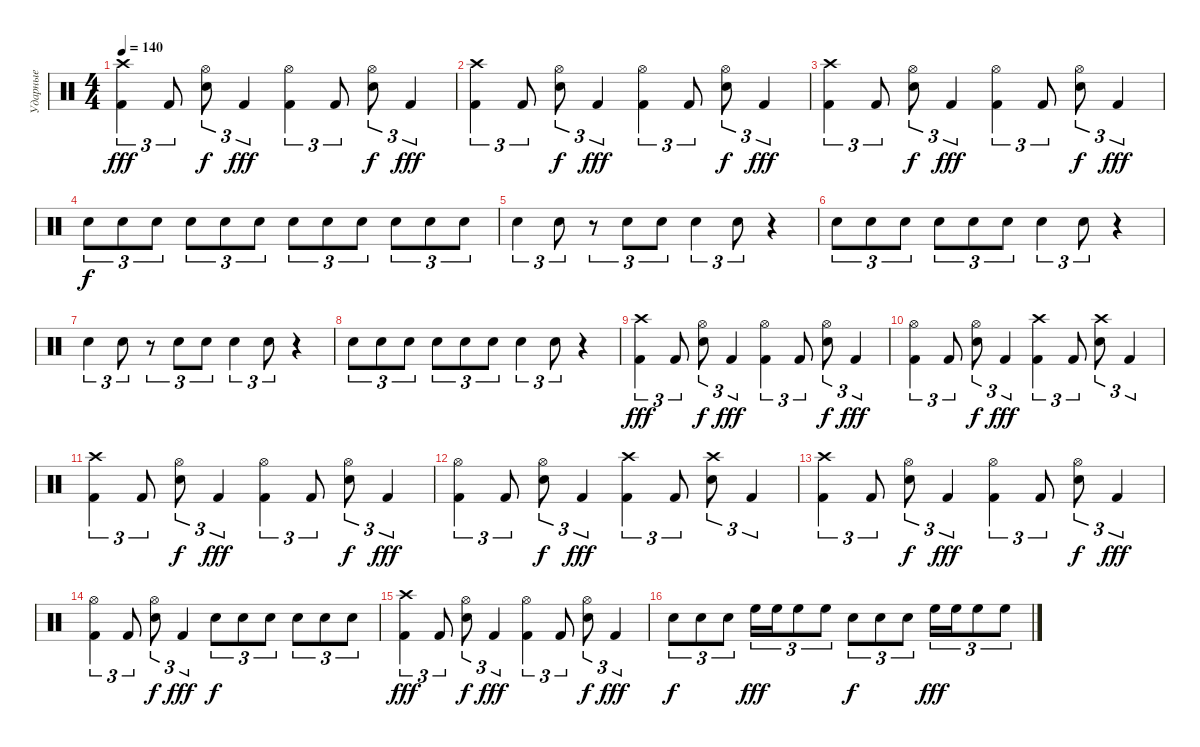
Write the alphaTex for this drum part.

\track ("Ударные" "Ударные") {instrument percussion}
\staff {score}
\articulation defaults
\ts (4 4)
\tempo 140
\clef neutral
\ks c
("Kick (hit) 2" "Crash high (hit)").4{tu (3 2) dy fff} "Kick (hit) 2".8{tu (3 2)} ("Snare (hit) 2" "Hi-Hat (open)").8{tu (3 2) dy f} "Kick (hit) 2".4{tu (3 2) dy fff} ("Kick (hit) 2" "Hi-Hat (open)").4{tu (3 2)} "Kick (hit) 2".8{tu (3 2)} ("Snare (hit) 2" "Hi-Hat (open)").8{tu (3 2) dy f} "Kick (hit) 2".4{tu (3 2) dy fff} |
("Kick (hit) 2" "Crash high (hit)").4{tu (3 2)} "Kick (hit) 2".8{tu (3 2)} ("Snare (hit) 2" "Hi-Hat (open)").8{tu (3 2) dy f} "Kick (hit) 2".4{tu (3 2) dy fff} ("Kick (hit) 2" "Hi-Hat (open)").4{tu (3 2)} "Kick (hit) 2".8{tu (3 2)} ("Snare (hit) 2" "Hi-Hat (open)").8{tu (3 2) dy f} "Kick (hit) 2".4{tu (3 2) dy fff} |
("Kick (hit) 2" "Crash high (hit)").4{tu (3 2)} "Kick (hit) 2".8{tu (3 2)} ("Snare (hit) 2" "Hi-Hat (open)").8{tu (3 2) dy f} "Kick (hit) 2".4{tu (3 2) dy fff} ("Kick (hit) 2" "Hi-Hat (open)").4{tu (3 2)} "Kick (hit) 2".8{tu (3 2)} ("Snare (hit) 2" "Hi-Hat (open)").8{tu (3 2) dy f} "Kick (hit) 2".4{tu (3 2) dy fff} |
"Snare (hit) 2".8{tu (3 2) dy f} "Snare (hit) 2".8{tu (3 2)} "Electric Snare (hit)".8{tu (3 2)} "Electric Snare (hit)".8{tu (3 2)} "Snare (hit) 2".8{tu (3 2)} "Snare (hit) 2".8{tu (3 2)} "Electric Snare (hit)".8{tu (3 2)} "Electric Snare (hit)".8{tu (3 2)} "Electric Snare (hit)".8{tu (3 2)} "Snare (hit) 2".8{tu (3 2)} "Electric Snare (hit)".8{tu (3 2)} "Electric Snare (hit)".8{tu (3 2)} |
"Snare (hit) 2".4{tu (3 2)} "Snare (hit) 2".8{tu (3 2)} r.8{tu (3 2)} "Snare (hit) 2".8{tu (3 2)} "Snare (hit) 2".8{tu (3 2)} "Snare (hit) 2".4{tu (3 2)} "Snare (hit) 2".8{tu (3 2)} r.4 |
"Snare (hit) 2".8{tu (3 2)} "Snare (hit) 2".8{tu (3 2)} "Snare (hit) 2".8{tu (3 2)} "Snare (hit) 2".8{tu (3 2)} "Snare (hit) 2".8{tu (3 2)} "Snare (hit) 2".8{tu (3 2)} "Snare (hit) 2".4{tu (3 2)} "Snare (hit) 2".8{tu (3 2)} r.4 |
"Snare (hit) 2".4{tu (3 2)} "Snare (hit) 2".8{tu (3 2)} r.8{tu (3 2)} "Snare (hit) 2".8{tu (3 2)} "Snare (hit) 2".8{tu (3 2)} "Snare (hit) 2".4{tu (3 2)} "Snare (hit) 2".8{tu (3 2)} r.4 |
"Snare (hit) 2".8{tu (3 2)} "Snare (hit) 2".8{tu (3 2)} "Snare (hit) 2".8{tu (3 2)} "Snare (hit) 2".8{tu (3 2)} "Snare (hit) 2".8{tu (3 2)} "Snare (hit) 2".8{tu (3 2)} "Snare (hit) 2".4{tu (3 2)} "Snare (hit) 2".8{tu (3 2)} r.4 |
("Kick (hit) 2" "Crash high (hit)").4{tu (3 2) dy fff} "Kick (hit) 2".8{tu (3 2)} ("Snare (hit) 2" "Hi-Hat (open)").8{tu (3 2) dy f} "Kick (hit) 2".4{tu (3 2) dy fff} ("Kick (hit) 2" "Hi-Hat (open)").4{tu (3 2)} "Kick (hit) 2".8{tu (3 2)} ("Snare (hit) 2" "Hi-Hat (open)").8{tu (3 2) dy f} "Kick (hit) 2".4{tu (3 2) dy fff} |
("Kick (hit) 2" "Hi-Hat (open)").4{tu (3 2)} "Kick (hit) 2".8{tu (3 2)} ("Snare (hit) 2" "Hi-Hat (open)").8{tu (3 2) dy f} "Kick (hit) 2".4{tu (3 2) dy fff} ("Kick (hit) 2" "Crash high (hit)").4{tu (3 2)} "Kick (hit) 2".8{tu (3 2)} ("Snare (hit) 2" "Crash high (hit)").8{tu (3 2)} "Kick (hit) 2".4{tu (3 2)} |
("Kick (hit) 2" "Crash high (hit)").4{tu (3 2)} "Kick (hit) 2".8{tu (3 2)} ("Snare (hit) 2" "Hi-Hat (open)").8{tu (3 2) dy f} "Kick (hit) 2".4{tu (3 2) dy fff} ("Kick (hit) 2" "Hi-Hat (open)").4{tu (3 2)} "Kick (hit) 2".8{tu (3 2)} ("Snare (hit) 2" "Hi-Hat (open)").8{tu (3 2) dy f} "Kick (hit) 2".4{tu (3 2) dy fff} |
("Kick (hit) 2" "Hi-Hat (open)").4{tu (3 2)} "Kick (hit) 2".8{tu (3 2)} ("Snare (hit) 2" "Hi-Hat (open)").8{tu (3 2) dy f} "Kick (hit) 2".4{tu (3 2) dy fff} ("Kick (hit) 2" "Crash high (hit)").4{tu (3 2)} "Kick (hit) 2".8{tu (3 2)} ("Snare (hit) 2" "Crash high (hit)").8{tu (3 2)} "Kick (hit) 2".4{tu (3 2)} |
("Kick (hit) 2" "Crash high (hit)").4{tu (3 2)} "Kick (hit) 2".8{tu (3 2)} ("Snare (hit) 2" "Hi-Hat (open)").8{tu (3 2) dy f} "Kick (hit) 2".4{tu (3 2) dy fff} ("Kick (hit) 2" "Hi-Hat (open)").4{tu (3 2)} "Kick (hit) 2".8{tu (3 2)} ("Snare (hit) 2" "Hi-Hat (open)").8{tu (3 2) dy f} "Kick (hit) 2".4{tu (3 2) dy fff} |
("Kick (hit) 2" "Hi-Hat (open)").4{tu (3 2)} "Kick (hit) 2".8{tu (3 2)} ("Snare (hit) 2" "Hi-Hat (open)").8{tu (3 2) dy f} "Kick (hit) 2".4{tu (3 2) dy fff} "Snare (hit) 2".8{tu (3 2) dy f} "Snare (hit) 2".8{tu (3 2)} "Snare (hit) 2".8{tu (3 2)} "Snare (hit) 2".8{tu (3 2)} "Snare (hit) 2".8{tu (3 2)} "Snare (hit) 2".8{tu (3 2)} |
("Kick (hit) 2" "Crash high (hit)").4{tu (3 2) dy fff} "Kick (hit) 2".8{tu (3 2)} ("Snare (hit) 2" "Hi-Hat (open)").8{tu (3 2) dy f} "Kick (hit) 2".4{tu (3 2) dy fff} ("Kick (hit) 2" "Hi-Hat (open)").4{tu (3 2)} "Kick (hit) 2".8{tu (3 2)} ("Snare (hit) 2" "Hi-Hat (open)").8{tu (3 2) dy f} "Kick (hit) 2".4{tu (3 2) dy fff} |
"Snare (hit) 2".8{tu (3 2) dy f} "Snare (hit) 2".8{tu (3 2)} "Electric Snare (hit)".8{tu (3 2)} "High Floor Tom (hit)".16{tu (3 2) dy fff} "High Floor Tom (hit)".16{tu (3 2)} "High Floor Tom (hit)".8{tu (3 2)} "High Floor Tom (hit)".8{tu (3 2)} "Snare (hit) 2".8{tu (3 2) dy f} "Snare (hit) 2".8{tu (3 2)} "Electric Snare (hit)".8{tu (3 2)} "High Floor Tom (hit)".16{tu (3 2) dy fff} "High Floor Tom (hit)".16{tu (3 2)} "High Floor Tom (hit)".8{tu (3 2)} "High Floor Tom (hit)".8{tu (3 2)}
